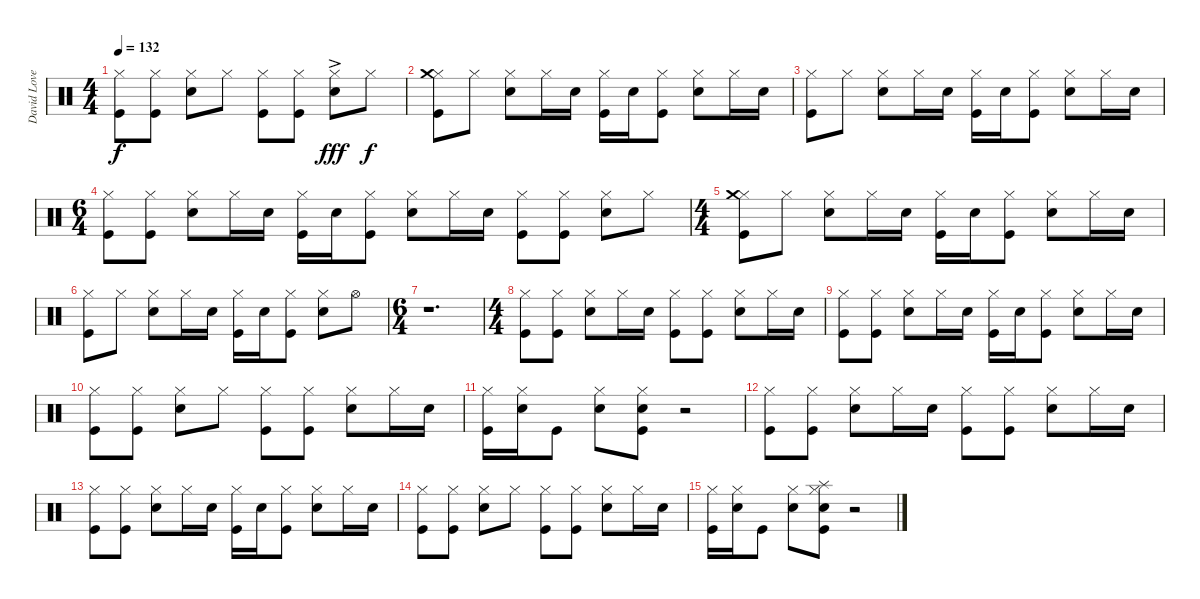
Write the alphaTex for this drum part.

\track ("David Lovering" "David Love") {instrument percussion}
\staff {score}
\articulation defaults
\ts (4 4)
\tempo 132
\clef neutral
\ks c
("Hi-Hat (closed)" "Kick (hit)").8{dy f} ("Hi-Hat (closed)" "Kick (hit)").8 ("Hi-Hat (closed)" "Snare (hit) 2").8 "Hi-Hat (closed)".8 ("Hi-Hat (closed)" "Kick (hit)").8 ("Hi-Hat (closed)" "Kick (hit)").8 ("Hi-Hat (closed)" "Snare (hit) 2"{ac}).8{dy fff} "Hi-Hat (closed)".8{dy f} |
("Hi-Hat (closed)" "Crash medium (hit)" "Kick (hit)").8 "Hi-Hat (closed)".8 ("Hi-Hat (closed)" "Snare (hit) 2").8 "Hi-Hat (closed)".16 "Snare (hit) 2".16 ("Hi-Hat (closed)" "Kick (hit)").16 "Snare (hit) 2".16 ("Hi-Hat (closed)" "Kick (hit)").8 ("Hi-Hat (closed)" "Snare (hit) 2").8 "Hi-Hat (closed)".16 "Snare (hit) 2".16 |
("Hi-Hat (closed)" "Kick (hit)").8 "Hi-Hat (closed)".8 ("Hi-Hat (closed)" "Snare (hit) 2").8 "Hi-Hat (closed)".16 "Snare (hit) 2".16 ("Hi-Hat (closed)" "Kick (hit)").16 "Snare (hit) 2".16 ("Hi-Hat (closed)" "Kick (hit)").8 ("Hi-Hat (closed)" "Snare (hit) 2").8 "Hi-Hat (closed)".16 "Snare (hit) 2".16 |
\ts (6 4)
("Hi-Hat (closed)" "Kick (hit)").8 ("Hi-Hat (closed)" "Kick (hit)").8 ("Hi-Hat (closed)" "Snare (hit) 2").8 "Hi-Hat (closed)".16 "Snare (hit) 2".16 ("Hi-Hat (closed)" "Kick (hit)").16 "Snare (hit) 2".16 ("Hi-Hat (closed)" "Kick (hit)").8 ("Hi-Hat (closed)" "Snare (hit) 2").8 "Hi-Hat (closed)".16 "Snare (hit) 2".16 ("Hi-Hat (closed)" "Kick (hit)").8 ("Hi-Hat (closed)" "Kick (hit)").8 ("Hi-Hat (closed)" "Snare (hit) 2").8 "Hi-Hat (closed)".8 |
\ts (4 4)
("Hi-Hat (closed)" "Crash medium (hit)" "Kick (hit)").8 "Hi-Hat (closed)".8 ("Hi-Hat (closed)" "Snare (hit) 2").8 "Hi-Hat (closed)".16 "Snare (hit) 2".16 ("Hi-Hat (closed)" "Kick (hit)").16 "Snare (hit) 2".16 ("Hi-Hat (closed)" "Kick (hit)").8 ("Hi-Hat (closed)" "Snare (hit) 2").8 "Hi-Hat (closed)".16 "Snare (hit) 2".16 |
("Hi-Hat (closed)" "Kick (hit)").8 "Hi-Hat (closed)".8 ("Hi-Hat (closed)" "Snare (hit) 2").8 "Hi-Hat (closed)".16 "Snare (hit) 2".16 ("Hi-Hat (closed)" "Kick (hit)").16 "Snare (hit) 2".16 ("Hi-Hat (closed)" "Kick (hit)").8 ("Hi-Hat (closed)" "Snare (hit) 2").8 "Hi-Hat (open)".8 |
\ts (6 4)
r.1{d} |
\ts (4 4)
\section ("" "")
("Hi-Hat (closed)" "Kick (hit)").8 ("Hi-Hat (closed)" "Kick (hit)").8 ("Hi-Hat (closed)" "Snare (hit) 2").8 "Hi-Hat (closed)".16 "Snare (hit) 2".16 ("Hi-Hat (closed)" "Kick (hit)").8 ("Hi-Hat (closed)" "Kick (hit)").8 ("Hi-Hat (closed)" "Snare (hit) 2").8 "Hi-Hat (closed)".16 "Snare (hit) 2".16 |
("Hi-Hat (closed)" "Kick (hit)").8 ("Hi-Hat (closed)" "Kick (hit)").8 ("Hi-Hat (closed)" "Snare (hit) 2").8 "Hi-Hat (closed)".16 "Snare (hit) 2".16 ("Hi-Hat (closed)" "Kick (hit)").16 "Snare (hit) 2".16 ("Hi-Hat (closed)" "Kick (hit)").8 ("Hi-Hat (closed)" "Snare (hit) 2").8 "Hi-Hat (closed)".16 "Snare (hit) 2".16 |
("Hi-Hat (closed)" "Kick (hit)").8 ("Hi-Hat (closed)" "Kick (hit)").8 ("Hi-Hat (closed)" "Snare (hit) 2").8 "Hi-Hat (closed)".8 ("Hi-Hat (closed)" "Kick (hit)").8 ("Hi-Hat (closed)" "Kick (hit)").8 ("Hi-Hat (closed)" "Snare (hit) 2").8 "Hi-Hat (closed)".16 "Snare (hit) 2".16 |
("Hi-Hat (closed)" "Kick (hit)").16 ("Hi-Hat (closed)" "Snare (hit) 2").16 "Kick (hit)".8 ("Hi-Hat (closed)" "Snare (hit) 2").8 ("Hi-Hat (closed)" "Snare (hit) 2" "Kick (hit)").8 r.2 |
("Hi-Hat (closed)" "Kick (hit)").8 ("Hi-Hat (closed)" "Kick (hit)").8 ("Hi-Hat (closed)" "Snare (hit) 2").8 "Hi-Hat (closed)".16 "Snare (hit) 2".16 ("Hi-Hat (closed)" "Kick (hit)").8 ("Hi-Hat (closed)" "Kick (hit)").8 ("Hi-Hat (closed)" "Snare (hit) 2").8 "Hi-Hat (closed)".16 "Snare (hit) 2".16 |
("Hi-Hat (closed)" "Kick (hit)").8 ("Hi-Hat (closed)" "Kick (hit)").8 ("Hi-Hat (closed)" "Snare (hit) 2").8 "Hi-Hat (closed)".16 "Snare (hit) 2".16 ("Hi-Hat (closed)" "Kick (hit)").16 "Snare (hit) 2".16 ("Hi-Hat (closed)" "Kick (hit)").8 ("Hi-Hat (closed)" "Snare (hit) 2").8 "Hi-Hat (closed)".16 "Snare (hit) 2".16 |
("Hi-Hat (closed)" "Kick (hit)").8 ("Hi-Hat (closed)" "Kick (hit)").8 ("Hi-Hat (closed)" "Snare (hit) 2").8 "Hi-Hat (closed)".8 ("Hi-Hat (closed)" "Kick (hit)").8 ("Hi-Hat (closed)" "Kick (hit)").8 ("Hi-Hat (closed)" "Snare (hit) 2").8 "Hi-Hat (closed)".16 "Snare (hit) 2".16 |
("Hi-Hat (closed)" "Kick (hit)").16 ("Hi-Hat (closed)" "Snare (hit) 2").16 "Kick (hit)".8 ("Hi-Hat (closed)" "Snare (hit) 2").8 ("Hi-Hat (closed)" "Splash (hit)" "Snare (hit) 2" "Kick (hit)").8 r.2
